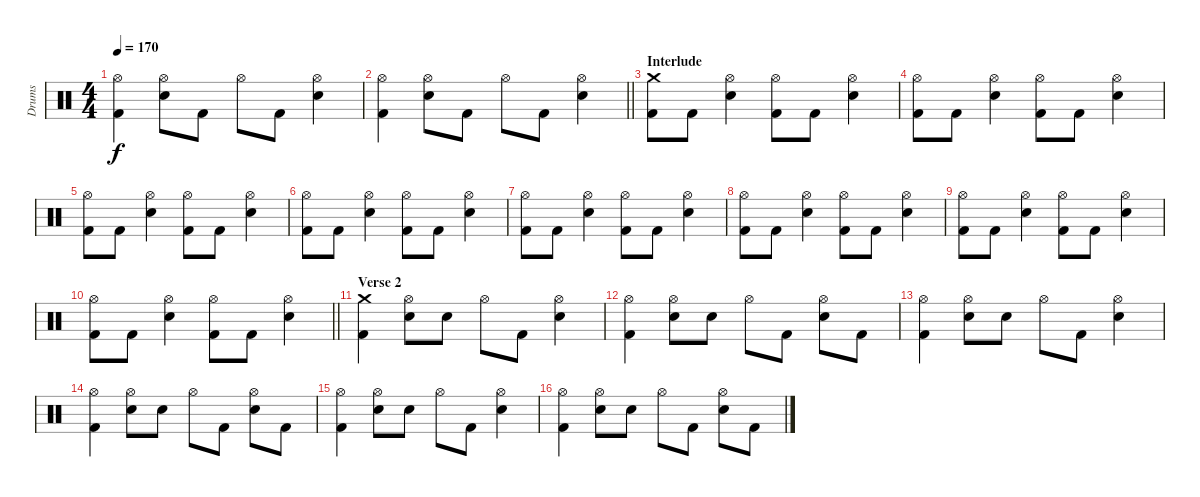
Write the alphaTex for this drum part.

\track ("Drums" "Drums") {instrument percussion}
\staff {score}
\articulation defaults
\ts (4 4)
\tempo 170
\clef neutral
\ks c
("Hi-Hat (open)" "Kick (hit) 2").4{dy f} ("Hi-Hat (open)" "Electric Snare (hit)").8 "Kick (hit) 2".8 "Hi-Hat (open)".8 "Kick (hit) 2".8 ("Hi-Hat (open)" "Electric Snare (hit)").4 |
\barLineRight lightlight
("Hi-Hat (open)" "Kick (hit) 2").4 ("Hi-Hat (open)" "Electric Snare (hit)").8 "Kick (hit) 2".8 "Hi-Hat (open)".8 "Kick (hit) 2".8 ("Hi-Hat (open)" "Electric Snare (hit)").4 |
\section ("" "Interlude")
("Crash medium (hit)" "Kick (hit) 2").8 "Kick (hit) 2".8 ("Hi-Hat (open)" "Electric Snare (hit)").4 ("Hi-Hat (open)" "Kick (hit) 2").8 "Kick (hit) 2".8 ("Hi-Hat (open)" "Electric Snare (hit)").4 |
("Hi-Hat (open)" "Kick (hit) 2").8 "Kick (hit) 2".8 ("Hi-Hat (open)" "Electric Snare (hit)").4 ("Hi-Hat (open)" "Kick (hit) 2").8 "Kick (hit) 2".8 ("Hi-Hat (open)" "Electric Snare (hit)").4 |
("Hi-Hat (open)" "Kick (hit) 2").8 "Kick (hit) 2".8 ("Hi-Hat (open)" "Electric Snare (hit)").4 ("Hi-Hat (open)" "Kick (hit) 2").8 "Kick (hit) 2".8 ("Hi-Hat (open)" "Electric Snare (hit)").4 |
("Hi-Hat (open)" "Kick (hit) 2").8 "Kick (hit) 2".8 ("Hi-Hat (open)" "Electric Snare (hit)").4 ("Hi-Hat (open)" "Kick (hit) 2").8 "Kick (hit) 2".8 ("Hi-Hat (open)" "Electric Snare (hit)").4 |
("Hi-Hat (open)" "Kick (hit) 2").8 "Kick (hit) 2".8 ("Hi-Hat (open)" "Electric Snare (hit)").4 ("Hi-Hat (open)" "Kick (hit) 2").8 "Kick (hit) 2".8 ("Hi-Hat (open)" "Electric Snare (hit)").4 |
("Hi-Hat (open)" "Kick (hit) 2").8 "Kick (hit) 2".8 ("Hi-Hat (open)" "Electric Snare (hit)").4 ("Hi-Hat (open)" "Kick (hit) 2").8 "Kick (hit) 2".8 ("Hi-Hat (open)" "Electric Snare (hit)").4 |
("Hi-Hat (open)" "Kick (hit) 2").8 "Kick (hit) 2".8 ("Hi-Hat (open)" "Electric Snare (hit)").4 ("Hi-Hat (open)" "Kick (hit) 2").8 "Kick (hit) 2".8 ("Hi-Hat (open)" "Electric Snare (hit)").4 |
\barLineRight lightlight
("Hi-Hat (open)" "Kick (hit) 2").8 "Kick (hit) 2".8 ("Hi-Hat (open)" "Electric Snare (hit)").4 ("Hi-Hat (open)" "Kick (hit) 2").8 "Kick (hit) 2".8 ("Hi-Hat (open)" "Electric Snare (hit)").4 |
\section ("" "Verse 2")
("Crash medium (hit)" "Kick (hit) 2").4 ("Hi-Hat (open)" "Electric Snare (hit)").8 "Electric Snare (hit)".8 "Hi-Hat (open)".8 "Kick (hit) 2".8 ("Hi-Hat (open)" "Electric Snare (hit)").4 |
("Hi-Hat (open)" "Kick (hit) 2").4 ("Hi-Hat (open)" "Electric Snare (hit)").8 "Electric Snare (hit)".8 "Hi-Hat (open)".8 "Kick (hit) 2".8 ("Hi-Hat (open)" "Electric Snare (hit)").8 "Kick (hit) 2".8 |
("Hi-Hat (open)" "Kick (hit) 2").4 ("Hi-Hat (open)" "Electric Snare (hit)").8 "Electric Snare (hit)".8 "Hi-Hat (open)".8 "Kick (hit) 2".8 ("Hi-Hat (open)" "Electric Snare (hit)").4 |
("Hi-Hat (open)" "Kick (hit) 2").4 ("Hi-Hat (open)" "Electric Snare (hit)").8 "Electric Snare (hit)".8 "Hi-Hat (open)".8 "Kick (hit) 2".8 ("Hi-Hat (open)" "Electric Snare (hit)").8 "Kick (hit) 2".8 |
("Hi-Hat (open)" "Kick (hit) 2").4 ("Hi-Hat (open)" "Electric Snare (hit)").8 "Electric Snare (hit)".8 "Hi-Hat (open)".8 "Kick (hit) 2".8 ("Hi-Hat (open)" "Electric Snare (hit)").4 |
("Hi-Hat (open)" "Kick (hit) 2").4 ("Hi-Hat (open)" "Electric Snare (hit)").8 "Electric Snare (hit)".8 "Hi-Hat (open)".8 "Kick (hit) 2".8 ("Hi-Hat (open)" "Electric Snare (hit)").8 "Kick (hit) 2".8
